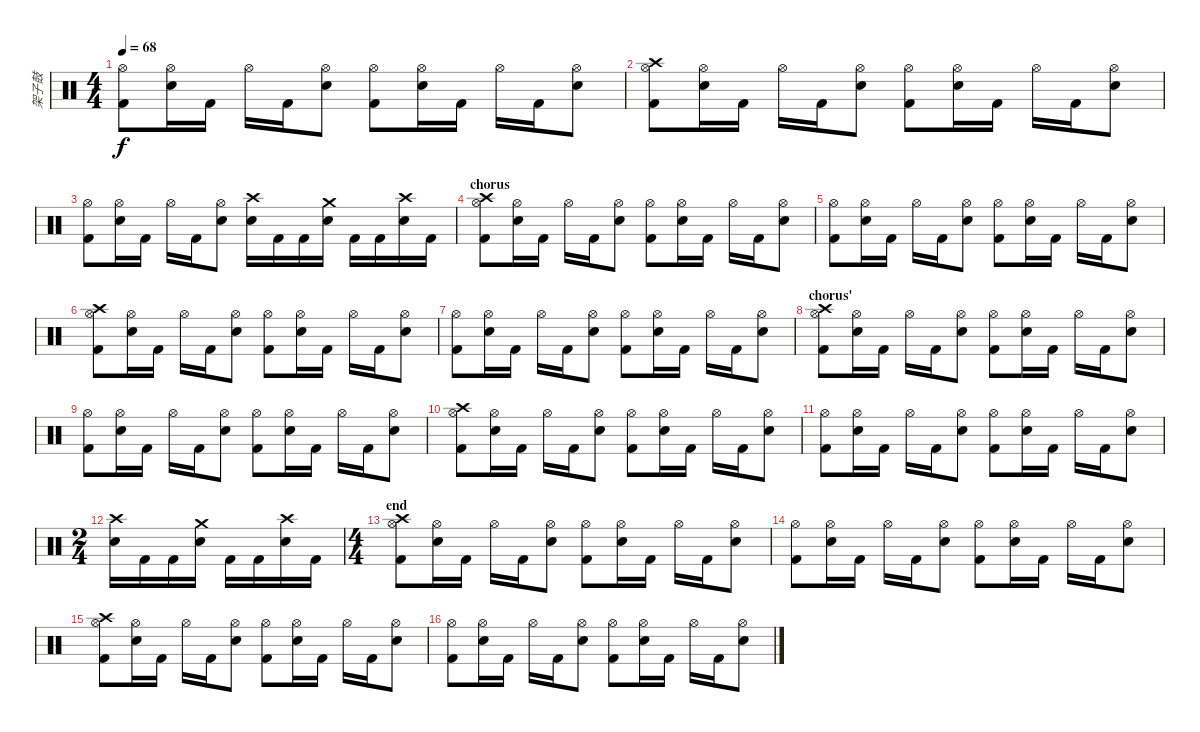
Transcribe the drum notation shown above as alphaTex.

\track ("架子鼓" "架子鼓") {instrument percussion}
\staff {score}
\articulation defaults
\ts (4 4)
\tempo 68
\clef neutral
\ks c
("Hi-Hat (open)" "Kick (hit) 2").8{dy f} ("Hi-Hat (open)" "Snare (hit) 2").16 "Kick (hit) 2".16 "Hi-Hat (open)".16 "Kick (hit) 2".16 ("Hi-Hat (open)" "Snare (hit) 2").8 ("Hi-Hat (open)" "Kick (hit) 2").8 ("Hi-Hat (open)" "Snare (hit) 2").16 "Kick (hit) 2".16 "Hi-Hat (open)".16 "Kick (hit) 2".16 ("Hi-Hat (open)" "Snare (hit) 2").8 |
("Crash high (hit)" "Hi-Hat (open)" "Kick (hit) 2").8 ("Hi-Hat (open)" "Snare (hit) 2").16 "Kick (hit) 2".16 "Hi-Hat (open)".16 "Kick (hit) 2".16 ("Hi-Hat (open)" "Snare (hit) 2").8 ("Hi-Hat (open)" "Kick (hit) 2").8 ("Hi-Hat (open)" "Snare (hit) 2").16 "Kick (hit) 2".16 "Hi-Hat (open)".16 "Kick (hit) 2".16 ("Hi-Hat (open)" "Snare (hit) 2").8 |
("Hi-Hat (open)" "Kick (hit) 2").8 ("Hi-Hat (open)" "Snare (hit) 2").16 "Kick (hit) 2".16 "Hi-Hat (open)".16 "Kick (hit) 2".16 ("Hi-Hat (open)" "Snare (hit) 2").8 ("Crash high (hit)" "Snare (hit) 2").16 "Kick (hit) 2".16 "Kick (hit) 2".16 ("Crash medium (hit)" "Snare (hit) 2").16 "Kick (hit) 2".16 "Kick (hit) 2".16 ("Crash high (hit)" "Snare (hit) 2").16 "Kick (hit) 2".16 |
\section ("" "chorus")
("Crash high (hit)" "Hi-Hat (open)" "Kick (hit) 2").8 ("Hi-Hat (open)" "Snare (hit) 2").16 "Kick (hit) 2".16 "Hi-Hat (open)".16 "Kick (hit) 2".16 ("Hi-Hat (open)" "Snare (hit) 2").8 ("Hi-Hat (open)" "Kick (hit) 2").8 ("Hi-Hat (open)" "Snare (hit) 2").16 "Kick (hit) 2".16 "Hi-Hat (open)".16 "Kick (hit) 2".16 ("Hi-Hat (open)" "Snare (hit) 2").8 |
("Hi-Hat (open)" "Kick (hit) 2").8 ("Hi-Hat (open)" "Snare (hit) 2").16 "Kick (hit) 2".16 "Hi-Hat (open)".16 "Kick (hit) 2".16 ("Hi-Hat (open)" "Snare (hit) 2").8 ("Hi-Hat (open)" "Kick (hit) 2").8 ("Hi-Hat (open)" "Snare (hit) 2").16 "Kick (hit) 2".16 "Hi-Hat (open)".16 "Kick (hit) 2".16 ("Hi-Hat (open)" "Snare (hit) 2").8 |
("Crash high (hit)" "Hi-Hat (open)" "Kick (hit) 2").8 ("Hi-Hat (open)" "Snare (hit) 2").16 "Kick (hit) 2".16 "Hi-Hat (open)".16 "Kick (hit) 2".16 ("Hi-Hat (open)" "Snare (hit) 2").8 ("Hi-Hat (open)" "Kick (hit) 2").8 ("Hi-Hat (open)" "Snare (hit) 2").16 "Kick (hit) 2".16 "Hi-Hat (open)".16 "Kick (hit) 2".16 ("Hi-Hat (open)" "Snare (hit) 2").8 |
("Hi-Hat (open)" "Kick (hit) 2").8 ("Hi-Hat (open)" "Snare (hit) 2").16 "Kick (hit) 2".16 "Hi-Hat (open)".16 "Kick (hit) 2".16 ("Hi-Hat (open)" "Snare (hit) 2").8 ("Hi-Hat (open)" "Kick (hit) 2").8 ("Hi-Hat (open)" "Snare (hit) 2").16 "Kick (hit) 2".16 "Hi-Hat (open)".16 "Kick (hit) 2".16 ("Hi-Hat (open)" "Snare (hit) 2").8 |
\section ("" "chorus'")
("Crash high (hit)" "Hi-Hat (open)" "Kick (hit) 2").8 ("Hi-Hat (open)" "Snare (hit) 2").16 "Kick (hit) 2".16 "Hi-Hat (open)".16 "Kick (hit) 2".16 ("Hi-Hat (open)" "Snare (hit) 2").8 ("Hi-Hat (open)" "Kick (hit) 2").8 ("Hi-Hat (open)" "Snare (hit) 2").16 "Kick (hit) 2".16 "Hi-Hat (open)".16 "Kick (hit) 2".16 ("Hi-Hat (open)" "Snare (hit) 2").8 |
("Hi-Hat (open)" "Kick (hit) 2").8 ("Hi-Hat (open)" "Snare (hit) 2").16 "Kick (hit) 2".16 "Hi-Hat (open)".16 "Kick (hit) 2".16 ("Hi-Hat (open)" "Snare (hit) 2").8 ("Hi-Hat (open)" "Kick (hit) 2").8 ("Hi-Hat (open)" "Snare (hit) 2").16 "Kick (hit) 2".16 "Hi-Hat (open)".16 "Kick (hit) 2".16 ("Hi-Hat (open)" "Snare (hit) 2").8 |
("Crash high (hit)" "Hi-Hat (open)" "Kick (hit) 2").8 ("Hi-Hat (open)" "Snare (hit) 2").16 "Kick (hit) 2".16 "Hi-Hat (open)".16 "Kick (hit) 2".16 ("Hi-Hat (open)" "Snare (hit) 2").8 ("Hi-Hat (open)" "Kick (hit) 2").8 ("Hi-Hat (open)" "Snare (hit) 2").16 "Kick (hit) 2".16 "Hi-Hat (open)".16 "Kick (hit) 2".16 ("Hi-Hat (open)" "Snare (hit) 2").8 |
("Hi-Hat (open)" "Kick (hit) 2").8 ("Hi-Hat (open)" "Snare (hit) 2").16 "Kick (hit) 2".16 "Hi-Hat (open)".16 "Kick (hit) 2".16 ("Hi-Hat (open)" "Snare (hit) 2").8 ("Hi-Hat (open)" "Kick (hit) 2").8 ("Hi-Hat (open)" "Snare (hit) 2").16 "Kick (hit) 2".16 "Hi-Hat (open)".16 "Kick (hit) 2".16 ("Hi-Hat (open)" "Snare (hit) 2").8 |
\ts (2 4)
("Crash high (hit)" "Snare (hit) 2").16 "Kick (hit) 2".16 "Kick (hit) 2".16 ("Crash medium (hit)" "Snare (hit) 2").16 "Kick (hit) 2".16 "Kick (hit) 2".16 ("Crash high (hit)" "Snare (hit) 2").16 "Kick (hit) 2".16 |
\ts (4 4)
\section ("" "end")
("Crash high (hit)" "Hi-Hat (open)" "Kick (hit) 2").8 ("Hi-Hat (open)" "Snare (hit) 2").16 "Kick (hit) 2".16 "Hi-Hat (open)".16 "Kick (hit) 2".16 ("Hi-Hat (open)" "Snare (hit) 2").8 ("Hi-Hat (open)" "Kick (hit) 2").8 ("Hi-Hat (open)" "Snare (hit) 2").16 "Kick (hit) 2".16 "Hi-Hat (open)".16 "Kick (hit) 2".16 ("Hi-Hat (open)" "Snare (hit) 2").8 |
("Hi-Hat (open)" "Kick (hit) 2").8 ("Hi-Hat (open)" "Snare (hit) 2").16 "Kick (hit) 2".16 "Hi-Hat (open)".16 "Kick (hit) 2".16 ("Hi-Hat (open)" "Snare (hit) 2").8 ("Hi-Hat (open)" "Kick (hit) 2").8 ("Hi-Hat (open)" "Snare (hit) 2").16 "Kick (hit) 2".16 "Hi-Hat (open)".16 "Kick (hit) 2".16 ("Hi-Hat (open)" "Snare (hit) 2").8 |
("Crash high (hit)" "Hi-Hat (open)" "Kick (hit) 2").8 ("Hi-Hat (open)" "Snare (hit) 2").16 "Kick (hit) 2".16 "Hi-Hat (open)".16 "Kick (hit) 2".16 ("Hi-Hat (open)" "Snare (hit) 2").8 ("Hi-Hat (open)" "Kick (hit) 2").8 ("Hi-Hat (open)" "Snare (hit) 2").16 "Kick (hit) 2".16 "Hi-Hat (open)".16 "Kick (hit) 2".16 ("Hi-Hat (open)" "Snare (hit) 2").8 |
("Hi-Hat (open)" "Kick (hit) 2").8 ("Hi-Hat (open)" "Snare (hit) 2").16 "Kick (hit) 2".16 "Hi-Hat (open)".16 "Kick (hit) 2".16 ("Hi-Hat (open)" "Snare (hit) 2").8 ("Hi-Hat (open)" "Kick (hit) 2").8 ("Hi-Hat (open)" "Snare (hit) 2").16 "Kick (hit) 2".16 "Hi-Hat (open)".16 "Kick (hit) 2".16 ("Hi-Hat (open)" "Snare (hit) 2").8
